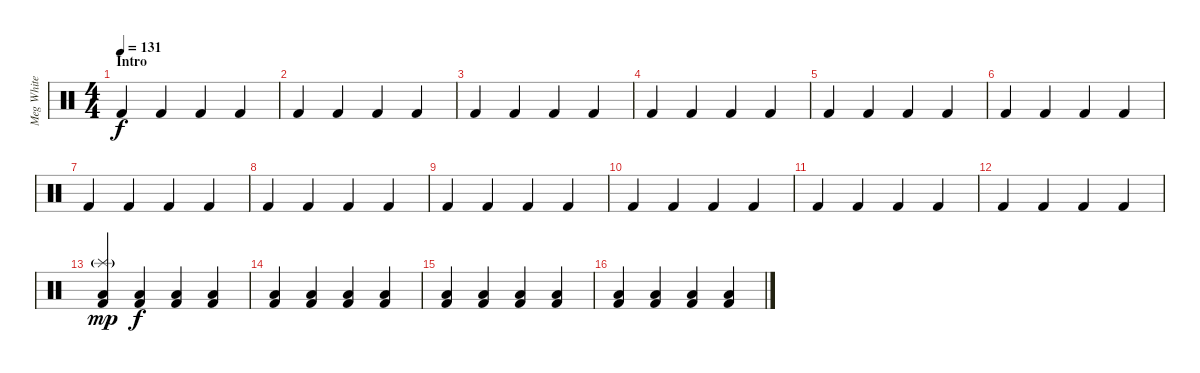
\track ("Meg White - Drums" "Meg White ") {instrument percussion}
\staff {score}
\articulation defaults
\ts (4 4)
\section ("" "Intro")
\tempo 131
\clef neutral
\ks c "Kick (hit) 2".4{dy f} "Kick (hit) 2".4 "Kick (hit) 2".4 "Kick (hit) 2".4
|
"Kick (hit) 2".4 "Kick (hit) 2".4 "Kick (hit) 2".4 "Kick (hit) 2".4 |
"Kick (hit) 2".4 "Kick (hit) 2".4 "Kick (hit) 2".4 "Kick (hit) 2".4 |
"Kick (hit) 2".4 "Kick (hit) 2".4 "Kick (hit) 2".4 "Kick (hit) 2".4 |
"Kick (hit) 2".4 "Kick (hit) 2".4 "Kick (hit) 2".4 "Kick (hit) 2".4 |
"Kick (hit) 2".4 "Kick (hit) 2".4 "Kick (hit) 2".4 "Kick (hit) 2".4 |
"Kick (hit) 2".4 "Kick (hit) 2".4 "Kick (hit) 2".4 "Kick (hit) 2".4 |
"Kick (hit) 2".4 "Kick (hit) 2".4 "Kick (hit) 2".4 "Kick (hit) 2".4 |
"Kick (hit) 2".4 "Kick (hit) 2".4 "Kick (hit) 2".4 "Kick (hit) 2".4 |
"Kick (hit) 2".4 "Kick (hit) 2".4 "Kick (hit) 2".4 "Kick (hit) 2".4 |
"Kick (hit) 2".4 "Kick (hit) 2".4 "Kick (hit) 2".4 "Kick (hit) 2".4 |
"Kick (hit) 2".4 "Kick (hit) 2".4 "Kick (hit) 2".4 "Kick (hit) 2".4 |
("Splash (hit)"{g} "Low Floor Tom (hit)" "Kick (hit) 2").4{dy mp} ("Low Floor Tom (hit)" "Kick (hit) 2").4{dy f} ("Low Floor Tom (hit)" "Kick (hit) 2").4 ("Low Floor Tom (hit)" "Kick (hit) 2").4 |
("Low Floor Tom (hit)" "Kick (hit) 2").4 ("Low Floor Tom (hit)" "Kick (hit) 2").4 ("Low Floor Tom (hit)" "Kick (hit) 2").4 ("Low Floor Tom (hit)" "Kick (hit) 2").4 |
("Low Floor Tom (hit)" "Kick (hit) 2").4 ("Low Floor Tom (hit)" "Kick (hit) 2").4 ("Low Floor Tom (hit)" "Kick (hit) 2").4 ("Low Floor Tom (hit)" "Kick (hit) 2").4 |
("Low Floor Tom (hit)" "Kick (hit) 2").4 ("Low Floor Tom (hit)" "Kick (hit) 2").4 ("Low Floor Tom (hit)" "Kick (hit) 2").4 ("Low Floor Tom (hit)" "Kick (hit) 2").4
